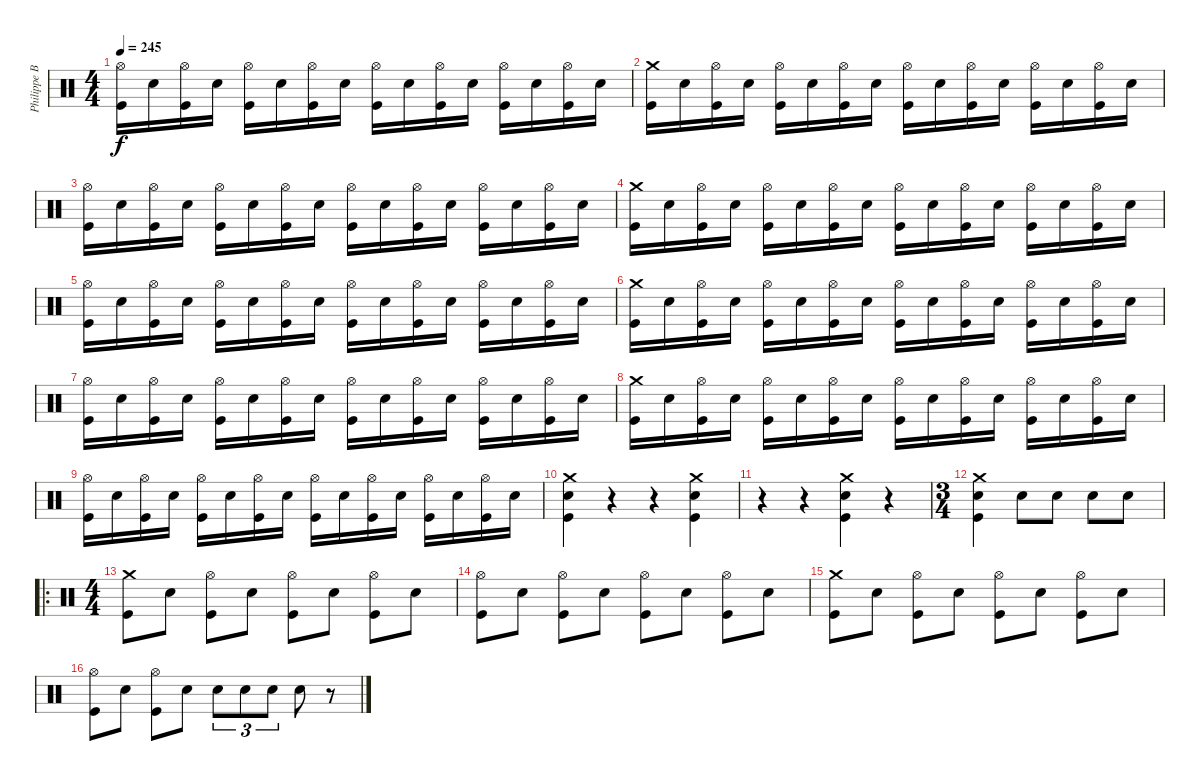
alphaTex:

\track ("Philippe Boucher" "Philippe B") {instrument percussion}
\staff {score}
\articulation defaults
\ts (4 4)
\tempo 245
\clef neutral
\ks c
("Hi-Hat (open)" "Kick (hit)").16{dy f} "Electric Snare (hit)".16 ("Hi-Hat (open)" "Kick (hit)").16 "Electric Snare (hit)".16 ("Hi-Hat (open)" "Kick (hit)").16 "Electric Snare (hit)".16 ("Hi-Hat (open)" "Kick (hit)").16 "Electric Snare (hit)".16 ("Hi-Hat (open)" "Kick (hit)").16 "Electric Snare (hit)".16 ("Hi-Hat (open)" "Kick (hit)").16 "Electric Snare (hit)".16 ("Hi-Hat (open)" "Kick (hit)").16 "Electric Snare (hit)".16 ("Hi-Hat (open)" "Kick (hit)").16 "Electric Snare (hit)".16 |
("Crash medium (hit)" "Kick (hit)").16 "Electric Snare (hit)".16 ("Hi-Hat (open)" "Kick (hit)").16 "Electric Snare (hit)".16 ("Hi-Hat (open)" "Kick (hit)").16 "Electric Snare (hit)".16 ("Hi-Hat (open)" "Kick (hit)").16 "Electric Snare (hit)".16 ("Hi-Hat (open)" "Kick (hit)").16 "Electric Snare (hit)".16 ("Hi-Hat (open)" "Kick (hit)").16 "Electric Snare (hit)".16 ("Hi-Hat (open)" "Kick (hit)").16 "Electric Snare (hit)".16 ("Hi-Hat (open)" "Kick (hit)").16 "Electric Snare (hit)".16 |
("Hi-Hat (open)" "Kick (hit)").16 "Electric Snare (hit)".16 ("Hi-Hat (open)" "Kick (hit)").16 "Electric Snare (hit)".16 ("Hi-Hat (open)" "Kick (hit)").16 "Electric Snare (hit)".16 ("Hi-Hat (open)" "Kick (hit)").16 "Electric Snare (hit)".16 ("Hi-Hat (open)" "Kick (hit)").16 "Electric Snare (hit)".16 ("Hi-Hat (open)" "Kick (hit)").16 "Electric Snare (hit)".16 ("Hi-Hat (open)" "Kick (hit)").16 "Electric Snare (hit)".16 ("Hi-Hat (open)" "Kick (hit)").16 "Electric Snare (hit)".16 |
("Crash medium (hit)" "Kick (hit)").16 "Electric Snare (hit)".16 ("Hi-Hat (open)" "Kick (hit)").16 "Electric Snare (hit)".16 ("Hi-Hat (open)" "Kick (hit)").16 "Electric Snare (hit)".16 ("Hi-Hat (open)" "Kick (hit)").16 "Electric Snare (hit)".16 ("Hi-Hat (open)" "Kick (hit)").16 "Electric Snare (hit)".16 ("Hi-Hat (open)" "Kick (hit)").16 "Electric Snare (hit)".16 ("Hi-Hat (open)" "Kick (hit)").16 "Electric Snare (hit)".16 ("Hi-Hat (open)" "Kick (hit)").16 "Electric Snare (hit)".16 |
("Hi-Hat (open)" "Kick (hit)").16 "Electric Snare (hit)".16 ("Hi-Hat (open)" "Kick (hit)").16 "Electric Snare (hit)".16 ("Hi-Hat (open)" "Kick (hit)").16 "Electric Snare (hit)".16 ("Hi-Hat (open)" "Kick (hit)").16 "Electric Snare (hit)".16 ("Hi-Hat (open)" "Kick (hit)").16 "Electric Snare (hit)".16 ("Hi-Hat (open)" "Kick (hit)").16 "Electric Snare (hit)".16 ("Hi-Hat (open)" "Kick (hit)").16 "Electric Snare (hit)".16 ("Hi-Hat (open)" "Kick (hit)").16 "Electric Snare (hit)".16 |
("Crash medium (hit)" "Kick (hit)").16 "Electric Snare (hit)".16 ("Hi-Hat (open)" "Kick (hit)").16 "Electric Snare (hit)".16 ("Hi-Hat (open)" "Kick (hit)").16 "Electric Snare (hit)".16 ("Hi-Hat (open)" "Kick (hit)").16 "Electric Snare (hit)".16 ("Hi-Hat (open)" "Kick (hit)").16 "Electric Snare (hit)".16 ("Hi-Hat (open)" "Kick (hit)").16 "Electric Snare (hit)".16 ("Hi-Hat (open)" "Kick (hit)").16 "Electric Snare (hit)".16 ("Hi-Hat (open)" "Kick (hit)").16 "Electric Snare (hit)".16 |
("Hi-Hat (open)" "Kick (hit)").16 "Electric Snare (hit)".16 ("Hi-Hat (open)" "Kick (hit)").16 "Electric Snare (hit)".16 ("Hi-Hat (open)" "Kick (hit)").16 "Electric Snare (hit)".16 ("Hi-Hat (open)" "Kick (hit)").16 "Electric Snare (hit)".16 ("Hi-Hat (open)" "Kick (hit)").16 "Electric Snare (hit)".16 ("Hi-Hat (open)" "Kick (hit)").16 "Electric Snare (hit)".16 ("Hi-Hat (open)" "Kick (hit)").16 "Electric Snare (hit)".16 ("Hi-Hat (open)" "Kick (hit)").16 "Electric Snare (hit)".16 |
("Crash medium (hit)" "Kick (hit)").16 "Electric Snare (hit)".16 ("Hi-Hat (open)" "Kick (hit)").16 "Electric Snare (hit)".16 ("Hi-Hat (open)" "Kick (hit)").16 "Electric Snare (hit)".16 ("Hi-Hat (open)" "Kick (hit)").16 "Electric Snare (hit)".16 ("Hi-Hat (open)" "Kick (hit)").16 "Electric Snare (hit)".16 ("Hi-Hat (open)" "Kick (hit)").16 "Electric Snare (hit)".16 ("Hi-Hat (open)" "Kick (hit)").16 "Electric Snare (hit)".16 ("Hi-Hat (open)" "Kick (hit)").16 "Electric Snare (hit)".16 |
("Hi-Hat (open)" "Kick (hit)").16 "Electric Snare (hit)".16 ("Hi-Hat (open)" "Kick (hit)").16 "Electric Snare (hit)".16 ("Hi-Hat (open)" "Kick (hit)").16 "Electric Snare (hit)".16 ("Hi-Hat (open)" "Kick (hit)").16 "Electric Snare (hit)".16 ("Hi-Hat (open)" "Kick (hit)").16 "Electric Snare (hit)".16 ("Hi-Hat (open)" "Kick (hit)").16 "Electric Snare (hit)".16 ("Hi-Hat (open)" "Kick (hit)").16 "Electric Snare (hit)".16 ("Hi-Hat (open)" "Kick (hit)").16 "Electric Snare (hit)".16 |
("Crash medium (hit)" "Electric Snare (hit)" "Kick (hit)").4 r.4 r.4 ("Crash medium (hit)" "Electric Snare (hit)" "Kick (hit)").4 |
r.4 r.4 ("Crash medium (hit)" "Electric Snare (hit)" "Kick (hit)").4 r.4 |
\ts (3 4)
("Crash medium (hit)" "Electric Snare (hit)" "Kick (hit)").4 "Electric Snare (hit)".8 "Electric Snare (hit)".8 "Electric Snare (hit)".8 "Electric Snare (hit)".8 |
\ro
\ts (4 4)
("Crash medium (hit)" "Kick (hit)").8 "Electric Snare (hit)".8 ("Hi-Hat (open)" "Kick (hit)").8 "Electric Snare (hit)".8 ("Hi-Hat (open)" "Kick (hit)").8 "Electric Snare (hit)".8 ("Hi-Hat (open)" "Kick (hit)").8 "Electric Snare (hit)".8 |
("Hi-Hat (open)" "Kick (hit)").8 "Electric Snare (hit)".8 ("Hi-Hat (open)" "Kick (hit)").8 "Electric Snare (hit)".8 ("Hi-Hat (open)" "Kick (hit)").8 "Electric Snare (hit)".8 ("Hi-Hat (open)" "Kick (hit)").8 "Electric Snare (hit)".8 |
("Crash medium (hit)" "Kick (hit)").8 "Electric Snare (hit)".8 ("Hi-Hat (open)" "Kick (hit)").8 "Electric Snare (hit)".8 ("Hi-Hat (open)" "Kick (hit)").8 "Electric Snare (hit)".8 ("Hi-Hat (open)" "Kick (hit)").8 "Electric Snare (hit)".8 |
("Hi-Hat (open)" "Kick (hit)").8 "Electric Snare (hit)".8 ("Hi-Hat (open)" "Kick (hit)").8 "Electric Snare (hit)".8 "Electric Snare (hit)".8{tu (3 2)} "Electric Snare (hit)".8{tu (3 2)} "Electric Snare (hit)".8{tu (3 2)} "Electric Snare (hit)".8 r.8
